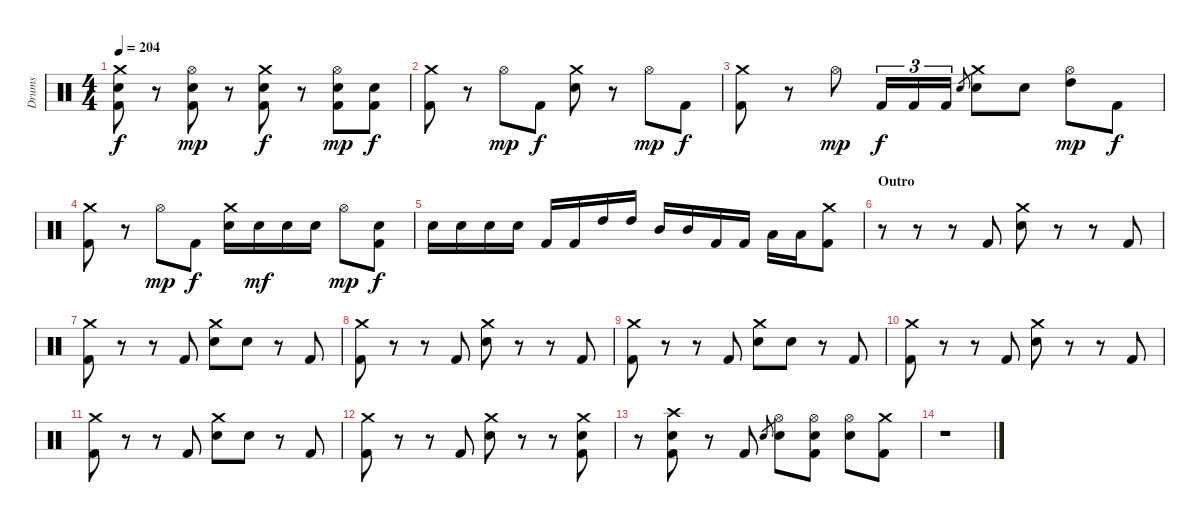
\track ("Drums" "Drums") {instrument percussion}
\staff {score}
\articulation defaults
\ts (4 4)
\tempo 204
\clef neutral
\ks c
("Crash medium (hit)" "Electric Snare (hit)" "Kick (hit) 2").8{dy f} r.8 ("Hi-Hat (open)" "Electric Snare (hit)" "Kick (hit) 2").8{dy mp} r.8 ("Crash medium (hit)" "Electric Snare (hit)" "Kick (hit) 2").8{dy f} r.8 ("Hi-Hat (open)" "Electric Snare (hit)" "Kick (hit) 2").8{dy mp} ("Electric Snare (hit)" "Kick (hit) 2").8{dy f} |
("Crash medium (hit)" "Kick (hit) 2").8 r.8 "Hi-Hat (open)".8{dy mp} "Kick (hit) 2".8{dy f} ("Crash medium (hit)" "Electric Snare (hit)").8 r.8 "Hi-Hat (open)".8{dy mp} "Kick (hit) 2".8{dy f} |
("Crash medium (hit)" "Kick (hit) 2").8 r.8 "Hi-Hat (open)".8{dy mp} "Kick (hit) 2".16{tu (3 2) dy f} "Kick (hit) 2".16{tu (3 2)} "Kick (hit) 2".16{tu (3 2)} "Electric Snare (hit)".8{gr} ("Crash medium (hit)" "Electric Snare (hit)").8 "Electric Snare (hit)".8 ("Hi-Hat (open)" "High Tom (hit)").8{dy mp} "Kick (hit) 2".8{dy f} |
("Crash medium (hit)" "Kick (hit) 2").8 r.8 "Hi-Hat (open)".8{dy mp} "Kick (hit) 2".8{dy f} ("Crash medium (hit)" "Electric Snare (hit)").16 "Electric Snare (hit)".16{dy mf} "Electric Snare (hit)".16 "Electric Snare (hit)".16 "Hi-Hat (open)".8{dy mp} ("Electric Snare (hit)" "Kick (hit) 2").8{dy f} |
"Electric Snare (hit)".16 "Electric Snare (hit)".16 "Electric Snare (hit)".16 "Electric Snare (hit)".16 "Kick (hit) 2".16 "Kick (hit) 2".16 "High Tom (hit)".16 "High Tom (hit)".16 "Mid Tom (hit)".16 "Mid Tom (hit)".16 "Kick (hit) 2".16 "Kick (hit) 2".16 "Low Tom (hit)".16 "Low Tom (hit)".16 ("Crash medium (hit)" "Kick (hit) 2").8 |
\section ("" "Outro")
r.8 r.8 r.8 "Kick (hit) 2".8 ("Crash medium (hit)" "Electric Snare (hit)").8 r.8 r.8 "Kick (hit) 2".8 |
("Crash medium (hit)" "Kick (hit) 2").8 r.8 r.8 "Kick (hit) 2".8 ("Crash medium (hit)" "Electric Snare (hit)").8 "Electric Snare (hit)".8 r.8 "Kick (hit) 2".8 |
("Crash medium (hit)" "Kick (hit) 2").8 r.8 r.8 "Kick (hit) 2".8 ("Crash medium (hit)" "Electric Snare (hit)").8 r.8 r.8 "Kick (hit) 2".8 |
("Crash medium (hit)" "Kick (hit) 2").8 r.8 r.8 "Kick (hit) 2".8 ("Crash medium (hit)" "Electric Snare (hit)").8 "Electric Snare (hit)".8 r.8 "Kick (hit) 2".8 |
("Crash medium (hit)" "Kick (hit) 2").8 r.8 r.8 "Kick (hit) 2".8 ("Crash medium (hit)" "Electric Snare (hit)").8 r.8 r.8 "Kick (hit) 2".8 |
("Crash medium (hit)" "Kick (hit) 2").8 r.8 r.8 "Kick (hit) 2".8 ("Crash medium (hit)" "Electric Snare (hit)").8 "Electric Snare (hit)".8 r.8 "Kick (hit) 2".8 |
("Crash medium (hit)" "Kick (hit) 2").8 r.8 r.8 "Kick (hit) 2".8 ("Crash medium (hit)" "Electric Snare (hit)").8 r.8 r.8 ("Crash medium (hit)" "Electric Snare (hit)" "Kick (hit) 2").8 |
r.8 ("Crash high (hit)" "Electric Snare (hit)" "Kick (hit) 2").8 r.8 "Kick (hit) 2".8 "Electric Snare (hit)".8{gr} ("Hi-Hat (open)" "Electric Snare (hit)").8 ("Hi-Hat (open)" "Electric Snare (hit)" "Kick (hit) 2").8 ("Hi-Hat (open)" "Electric Snare (hit)").8 ("Crash medium (hit)" "Kick (hit) 2").8 |
r.1
